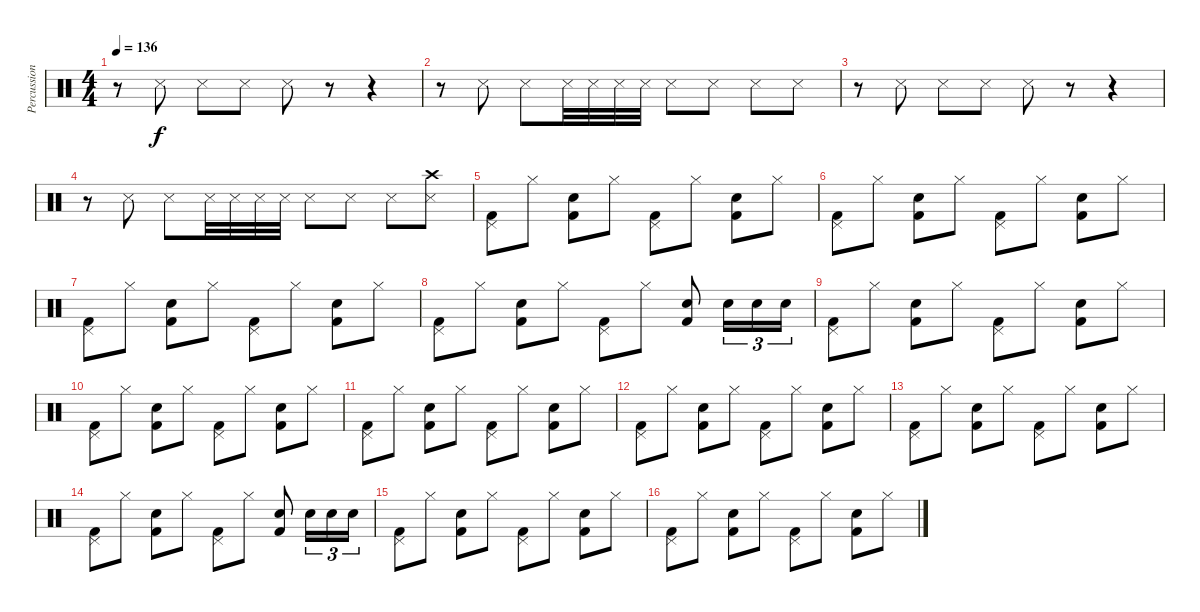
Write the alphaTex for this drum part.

\track ("Percussion" "Percussion") {instrument percussion}
\staff {score}
\articulation defaults
\ts (4 4)
\tempo 136
\clef neutral
\ks c
r.8{dy f} "Snare (side stick) 3".8 "Snare (side stick) 3".8 "Snare (side stick) 3".8 "Snare (side stick) 3".8 r.8 r.4 |
r.8 "Snare (side stick) 3".8 "Snare (side stick) 3".8 "Snare (side stick) 3".32 "Snare (side stick) 3".32 "Snare (side stick) 3".32 "Snare (side stick) 3".32 "Snare (side stick) 3".8 "Snare (side stick) 3".8 "Snare (side stick) 3".8 "Snare (side stick) 3".8 |
r.8 "Snare (side stick) 3".8 "Snare (side stick) 3".8 "Snare (side stick) 3".8 "Snare (side stick) 3".8 r.8 r.4 |
r.8 "Snare (side stick) 3".8 "Snare (side stick) 3".8 "Snare (side stick) 3".32 "Snare (side stick) 3".32 "Snare (side stick) 3".32 "Snare (side stick) 3".32 "Snare (side stick) 3".8 "Snare (side stick) 3".8 "Snare (side stick) 3".8 ("Crash high (hit)" "Snare (side stick) 3").8 |
("Pedal Hi-Hat (hit)" "Kick (hit) 2").8 "Hi-Hat (closed)".8 ("Snare (hit) 2" "Kick (hit) 2").8 "Hi-Hat (closed)".8 ("Pedal Hi-Hat (hit)" "Kick (hit) 2").8 "Hi-Hat (closed)".8 ("Snare (hit) 2" "Kick (hit) 2").8 "Hi-Hat (closed)".8 |
("Pedal Hi-Hat (hit)" "Kick (hit) 2").8 "Hi-Hat (closed)".8 ("Snare (hit) 2" "Kick (hit) 2").8 "Hi-Hat (closed)".8 ("Pedal Hi-Hat (hit)" "Kick (hit) 2").8 "Hi-Hat (closed)".8 ("Snare (hit) 2" "Kick (hit) 2").8 "Hi-Hat (closed)".8 |
("Pedal Hi-Hat (hit)" "Kick (hit) 2").8 "Hi-Hat (closed)".8 ("Snare (hit) 2" "Kick (hit) 2").8 "Hi-Hat (closed)".8 ("Pedal Hi-Hat (hit)" "Kick (hit) 2").8 "Hi-Hat (closed)".8 ("Snare (hit) 2" "Kick (hit) 2").8 "Hi-Hat (closed)".8 |
("Pedal Hi-Hat (hit)" "Kick (hit) 2").8 "Hi-Hat (closed)".8 ("Snare (hit) 2" "Kick (hit) 2").8 "Hi-Hat (closed)".8 ("Pedal Hi-Hat (hit)" "Kick (hit) 2").8 "Hi-Hat (closed)".8 ("Snare (hit) 2" "Kick (hit) 2").8 "Snare (hit) 2".16{tu (3 2)} "Snare (hit) 2".16{tu (3 2)} "Snare (hit) 2".16{tu (3 2)} |
("Pedal Hi-Hat (hit)" "Kick (hit) 2").8 "Hi-Hat (closed)".8 ("Snare (hit) 2" "Kick (hit) 2").8 "Hi-Hat (closed)".8 ("Pedal Hi-Hat (hit)" "Kick (hit) 2").8 "Hi-Hat (closed)".8 ("Snare (hit) 2" "Kick (hit) 2").8 "Hi-Hat (closed)".8 |
("Pedal Hi-Hat (hit)" "Kick (hit) 2").8 "Hi-Hat (closed)".8 ("Snare (hit) 2" "Kick (hit) 2").8 "Hi-Hat (closed)".8 ("Pedal Hi-Hat (hit)" "Kick (hit) 2").8 "Hi-Hat (closed)".8 ("Snare (hit) 2" "Kick (hit) 2").8 "Hi-Hat (closed)".8 |
("Pedal Hi-Hat (hit)" "Kick (hit) 2").8 "Hi-Hat (closed)".8 ("Snare (hit) 2" "Kick (hit) 2").8 "Hi-Hat (closed)".8 ("Pedal Hi-Hat (hit)" "Kick (hit) 2").8 "Hi-Hat (closed)".8 ("Snare (hit) 2" "Kick (hit) 2").8 "Hi-Hat (closed)".8 |
("Pedal Hi-Hat (hit)" "Kick (hit) 2").8 "Hi-Hat (closed)".8 ("Snare (hit) 2" "Kick (hit) 2").8 "Hi-Hat (closed)".8 ("Pedal Hi-Hat (hit)" "Kick (hit) 2").8 "Hi-Hat (closed)".8 ("Snare (hit) 2" "Kick (hit) 2").8 "Hi-Hat (closed)".8 |
("Pedal Hi-Hat (hit)" "Kick (hit) 2").8 "Hi-Hat (closed)".8 ("Snare (hit) 2" "Kick (hit) 2").8 "Hi-Hat (closed)".8 ("Pedal Hi-Hat (hit)" "Kick (hit) 2").8 "Hi-Hat (closed)".8 ("Snare (hit) 2" "Kick (hit) 2").8 "Hi-Hat (closed)".8 |
("Pedal Hi-Hat (hit)" "Kick (hit) 2").8 "Hi-Hat (closed)".8 ("Snare (hit) 2" "Kick (hit) 2").8 "Hi-Hat (closed)".8 ("Pedal Hi-Hat (hit)" "Kick (hit) 2").8 "Hi-Hat (closed)".8 ("Snare (hit) 2" "Kick (hit) 2").8 "Snare (hit) 2".16{tu (3 2)} "Snare (hit) 2".16{tu (3 2)} "Snare (hit) 2".16{tu (3 2)} |
("Pedal Hi-Hat (hit)" "Kick (hit) 2").8 "Hi-Hat (closed)".8 ("Snare (hit) 2" "Kick (hit) 2").8 "Hi-Hat (closed)".8 ("Pedal Hi-Hat (hit)" "Kick (hit) 2").8 "Hi-Hat (closed)".8 ("Snare (hit) 2" "Kick (hit) 2").8 "Hi-Hat (closed)".8 |
("Pedal Hi-Hat (hit)" "Kick (hit) 2").8 "Hi-Hat (closed)".8 ("Snare (hit) 2" "Kick (hit) 2").8 "Hi-Hat (closed)".8 ("Pedal Hi-Hat (hit)" "Kick (hit) 2").8 "Hi-Hat (closed)".8 ("Snare (hit) 2" "Kick (hit) 2").8 "Hi-Hat (closed)".8
